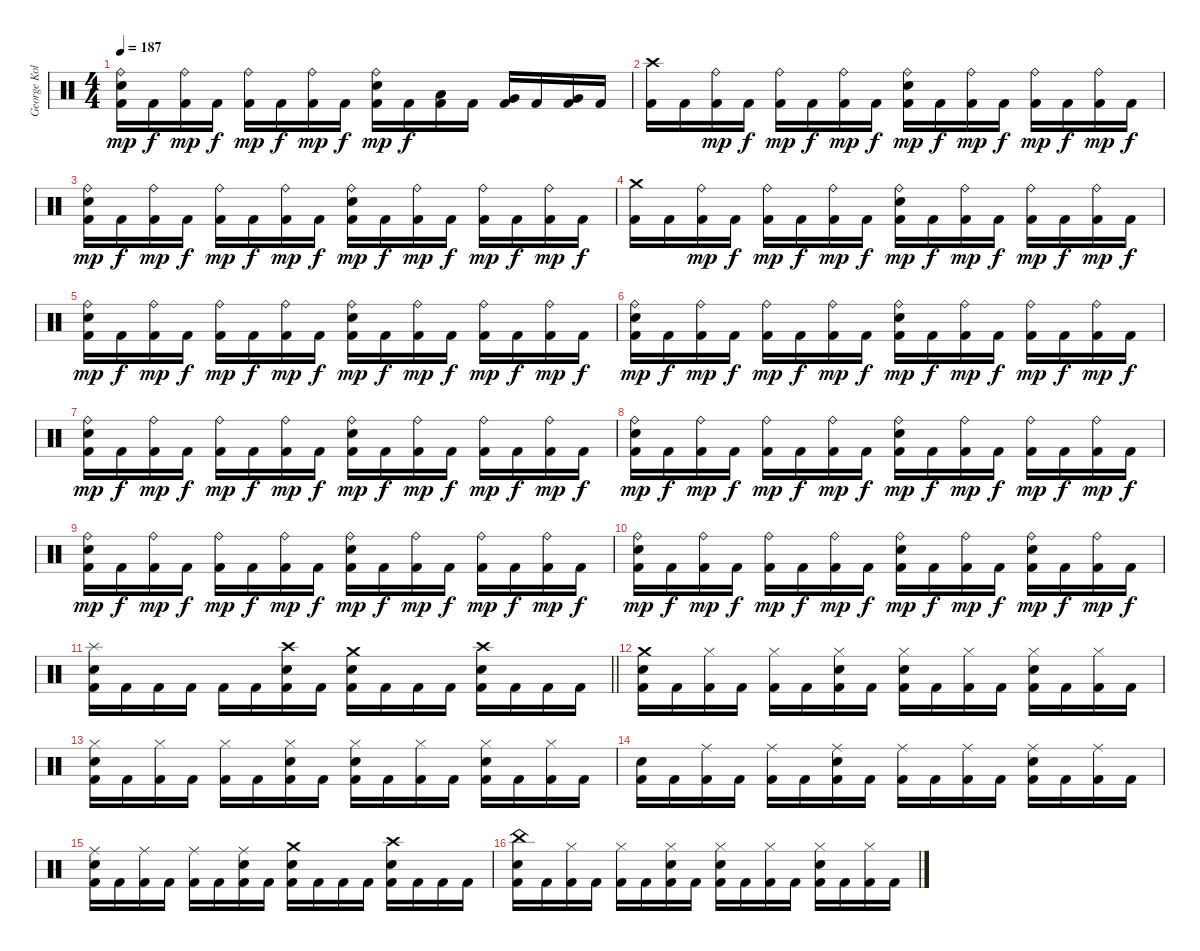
\track ("George Kollias" "George Kol") {instrument percussion}
\staff {score}
\articulation defaults
\ts (4 4)
\tempo 187
\clef neutral
\ks c
("Ride (bell)" "Electric Snare (hit)" "Kick (hit) 2").16{dy mp} "Kick (hit) 2".16{dy f} ("Ride (bell)" "Kick (hit) 2").16{dy mp} "Kick (hit) 2".16{dy f} ("Ride (bell)" "Kick (hit) 2").16{dy mp} "Kick (hit) 2".16{dy f} ("Ride (bell)" "Kick (hit) 2").16{dy mp} "Kick (hit) 2".16{dy f} ("Ride (bell)" "Electric Snare (hit)" "Kick (hit) 2").16{dy mp} "Kick (hit) 2".16{dy f} ("Low Tom (hit)" "Kick (hit) 2").16 "Kick (hit) 2".16 ("Very Low Tom (hit)" "Kick (hit) 2").16 "Kick (hit) 2".16 ("Very Low Tom (hit)" "Kick (hit) 2").16 "Kick (hit) 2".16 |
("Crash high (hit)" "Kick (hit) 2").16 "Kick (hit) 2".16 ("Ride (bell)" "Kick (hit) 2").16{dy mp} "Kick (hit) 2".16{dy f} ("Ride (bell)" "Kick (hit) 2").16{dy mp} "Kick (hit) 2".16{dy f} ("Ride (bell)" "Kick (hit) 2").16{dy mp} "Kick (hit) 2".16{dy f} ("Ride (bell)" "Electric Snare (hit)" "Kick (hit) 2").16{dy mp} "Kick (hit) 2".16{dy f} ("Ride (bell)" "Kick (hit) 2").16{dy mp} "Kick (hit) 2".16{dy f} ("Ride (bell)" "Kick (hit) 2").16{dy mp} "Kick (hit) 2".16{dy f} ("Ride (bell)" "Kick (hit) 2").16{dy mp} "Kick (hit) 2".16{dy f} |
("Ride (bell)" "Electric Snare (hit)" "Kick (hit) 2").16{dy mp} "Kick (hit) 2".16{dy f} ("Ride (bell)" "Kick (hit) 2").16{dy mp} "Kick (hit) 2".16{dy f} ("Ride (bell)" "Kick (hit) 2").16{dy mp} "Kick (hit) 2".16{dy f} ("Ride (bell)" "Kick (hit) 2").16{dy mp} "Kick (hit) 2".16{dy f} ("Ride (bell)" "Electric Snare (hit)" "Kick (hit) 2").16{dy mp} "Kick (hit) 2".16{dy f} ("Ride (bell)" "Kick (hit) 2").16{dy mp} "Kick (hit) 2".16{dy f} ("Ride (bell)" "Kick (hit) 2").16{dy mp} "Kick (hit) 2".16{dy f} ("Ride (bell)" "Kick (hit) 2").16{dy mp} "Kick (hit) 2".16{dy f} |
("Crash medium (hit)" "Kick (hit) 2").16 "Kick (hit) 2".16 ("Ride (bell)" "Kick (hit) 2").16{dy mp} "Kick (hit) 2".16{dy f} ("Ride (bell)" "Kick (hit) 2").16{dy mp} "Kick (hit) 2".16{dy f} ("Ride (bell)" "Kick (hit) 2").16{dy mp} "Kick (hit) 2".16{dy f} ("Ride (bell)" "Electric Snare (hit)" "Kick (hit) 2").16{dy mp} "Kick (hit) 2".16{dy f} ("Ride (bell)" "Kick (hit) 2").16{dy mp} "Kick (hit) 2".16{dy f} ("Ride (bell)" "Kick (hit) 2").16{dy mp} "Kick (hit) 2".16{dy f} ("Ride (bell)" "Kick (hit) 2").16{dy mp} "Kick (hit) 2".16{dy f} |
("Ride (bell)" "Electric Snare (hit)" "Kick (hit) 2").16{dy mp} "Kick (hit) 2".16{dy f} ("Ride (bell)" "Kick (hit) 2").16{dy mp} "Kick (hit) 2".16{dy f} ("Ride (bell)" "Kick (hit) 2").16{dy mp} "Kick (hit) 2".16{dy f} ("Ride (bell)" "Kick (hit) 2").16{dy mp} "Kick (hit) 2".16{dy f} ("Ride (bell)" "Electric Snare (hit)" "Kick (hit) 2").16{dy mp} "Kick (hit) 2".16{dy f} ("Ride (bell)" "Kick (hit) 2").16{dy mp} "Kick (hit) 2".16{dy f} ("Ride (bell)" "Kick (hit) 2").16{dy mp} "Kick (hit) 2".16{dy f} ("Ride (bell)" "Kick (hit) 2").16{dy mp} "Kick (hit) 2".16{dy f} |
("Ride (bell)" "Electric Snare (hit)" "Kick (hit) 2").16{dy mp} "Kick (hit) 2".16{dy f} ("Ride (bell)" "Kick (hit) 2").16{dy mp} "Kick (hit) 2".16{dy f} ("Ride (bell)" "Kick (hit) 2").16{dy mp} "Kick (hit) 2".16{dy f} ("Ride (bell)" "Kick (hit) 2").16{dy mp} "Kick (hit) 2".16{dy f} ("Ride (bell)" "Electric Snare (hit)" "Kick (hit) 2").16{dy mp} "Kick (hit) 2".16{dy f} ("Ride (bell)" "Kick (hit) 2").16{dy mp} "Kick (hit) 2".16{dy f} ("Ride (bell)" "Kick (hit) 2").16{dy mp} "Kick (hit) 2".16{dy f} ("Ride (bell)" "Kick (hit) 2").16{dy mp} "Kick (hit) 2".16{dy f} |
("Ride (bell)" "Electric Snare (hit)" "Kick (hit) 2").16{dy mp} "Kick (hit) 2".16{dy f} ("Ride (bell)" "Kick (hit) 2").16{dy mp} "Kick (hit) 2".16{dy f} ("Ride (bell)" "Kick (hit) 2").16{dy mp} "Kick (hit) 2".16{dy f} ("Ride (bell)" "Kick (hit) 2").16{dy mp} "Kick (hit) 2".16{dy f} ("Ride (bell)" "Electric Snare (hit)" "Kick (hit) 2").16{dy mp} "Kick (hit) 2".16{dy f} ("Ride (bell)" "Kick (hit) 2").16{dy mp} "Kick (hit) 2".16{dy f} ("Ride (bell)" "Kick (hit) 2").16{dy mp} "Kick (hit) 2".16{dy f} ("Ride (bell)" "Kick (hit) 2").16{dy mp} "Kick (hit) 2".16{dy f} |
("Ride (bell)" "Electric Snare (hit)" "Kick (hit) 2").16{dy mp} "Kick (hit) 2".16{dy f} ("Ride (bell)" "Kick (hit) 2").16{dy mp} "Kick (hit) 2".16{dy f} ("Ride (bell)" "Kick (hit) 2").16{dy mp} "Kick (hit) 2".16{dy f} ("Ride (bell)" "Kick (hit) 2").16{dy mp} "Kick (hit) 2".16{dy f} ("Ride (bell)" "Electric Snare (hit)" "Kick (hit) 2").16{dy mp} "Kick (hit) 2".16{dy f} ("Ride (bell)" "Kick (hit) 2").16{dy mp} "Kick (hit) 2".16{dy f} ("Ride (bell)" "Kick (hit) 2").16{dy mp} "Kick (hit) 2".16{dy f} ("Ride (bell)" "Kick (hit) 2").16{dy mp} "Kick (hit) 2".16{dy f} |
("Ride (bell)" "Electric Snare (hit)" "Kick (hit) 2").16{dy mp} "Kick (hit) 2".16{dy f} ("Ride (bell)" "Kick (hit) 2").16{dy mp} "Kick (hit) 2".16{dy f} ("Ride (bell)" "Kick (hit) 2").16{dy mp} "Kick (hit) 2".16{dy f} ("Ride (bell)" "Kick (hit) 2").16{dy mp} "Kick (hit) 2".16{dy f} ("Ride (bell)" "Electric Snare (hit)" "Kick (hit) 2").16{dy mp} "Kick (hit) 2".16{dy f} ("Ride (bell)" "Kick (hit) 2").16{dy mp} "Kick (hit) 2".16{dy f} ("Ride (bell)" "Kick (hit) 2").16{dy mp} "Kick (hit) 2".16{dy f} ("Ride (bell)" "Kick (hit) 2").16{dy mp} "Kick (hit) 2".16{dy f} |
("Ride (bell)" "Electric Snare (hit)" "Kick (hit) 2").16{dy mp} "Kick (hit) 2".16{dy f} ("Ride (bell)" "Kick (hit) 2").16{dy mp} "Kick (hit) 2".16{dy f} ("Ride (bell)" "Kick (hit) 2").16{dy mp} "Kick (hit) 2".16{dy f} ("Ride (bell)" "Kick (hit) 2").16{dy mp} "Kick (hit) 2".16{dy f} ("Ride (bell)" "Electric Snare (hit)" "Kick (hit) 2").16{dy mp} "Kick (hit) 2".16{dy f} ("Ride (bell)" "Kick (hit) 2").16{dy mp} "Kick (hit) 2".16{dy f} ("Ride (bell)" "Electric Snare (hit)" "Kick (hit) 2").16{dy mp} "Kick (hit) 2".16{dy f} ("Ride (bell)" "Kick (hit) 2").16{dy mp} "Kick (hit) 2".16{dy f} |
\barLineRight lightlight
("Splash (hit)" "Electric Snare (hit)" "Kick (hit) 2").16 "Kick (hit) 2".16 "Kick (hit) 2".16 "Kick (hit) 2".16 "Kick (hit) 2".16 "Kick (hit) 2".16 ("Crash high (hit)" "Electric Snare (hit)" "Kick (hit) 2").16 "Kick (hit) 2".16 ("Crash medium (hit)" "Electric Snare (hit)" "Kick (hit) 2").16 "Kick (hit) 2".16 "Kick (hit) 2".16 "Kick (hit) 2".16 ("Crash high (hit)" "Electric Snare (hit)" "Kick (hit) 2").16 "Kick (hit) 2".16 "Kick (hit) 2".16 "Kick (hit) 2".16 |
\section ("" "")
("Crash medium (hit)" "Electric Snare (hit)" "Kick (hit) 2").16 "Kick (hit) 2".16 ("Hi-Hat (closed)" "Kick (hit) 2").16 "Kick (hit) 2".16 ("Hi-Hat (closed)" "Kick (hit) 2").16 "Kick (hit) 2".16 ("Hi-Hat (closed)" "Electric Snare (hit)" "Kick (hit) 2").16 "Kick (hit) 2".16 ("Hi-Hat (closed)" "Electric Snare (hit)" "Kick (hit) 2").16 "Kick (hit) 2".16 ("Hi-Hat (closed)" "Kick (hit) 2").16 "Kick (hit) 2".16 ("Hi-Hat (closed)" "Electric Snare (hit)" "Kick (hit) 2").16 "Kick (hit) 2".16 ("Hi-Hat (closed)" "Kick (hit) 2").16 "Kick (hit) 2".16 |
("Hi-Hat (closed)" "Electric Snare (hit)" "Kick (hit) 2").16 "Kick (hit) 2".16 ("Hi-Hat (closed)" "Kick (hit) 2").16 "Kick (hit) 2".16 ("Hi-Hat (closed)" "Kick (hit) 2").16 "Kick (hit) 2".16 ("Hi-Hat (closed)" "Electric Snare (hit)" "Kick (hit) 2").16 "Kick (hit) 2".16 ("Hi-Hat (closed)" "Electric Snare (hit)" "Kick (hit) 2").16 "Kick (hit) 2".16 ("Hi-Hat (closed)" "Kick (hit) 2").16 "Kick (hit) 2".16 ("Hi-Hat (closed)" "Electric Snare (hit)" "Kick (hit) 2").16 "Kick (hit) 2".16 ("Hi-Hat (closed)" "Kick (hit) 2").16 "Kick (hit) 2".16 |
("Electric Snare (hit)" "Kick (hit) 2").16 "Kick (hit) 2".16 ("Ride (middle)" "Kick (hit) 2").16 "Kick (hit) 2".16 ("Ride (middle)" "Kick (hit) 2").16 "Kick (hit) 2".16 ("Ride (middle)" "Electric Snare (hit)" "Kick (hit) 2").16 "Kick (hit) 2".16 ("Ride (middle)" "Kick (hit) 2").16 "Kick (hit) 2".16 ("Ride (middle)" "Kick (hit) 2").16 "Kick (hit) 2".16 ("Ride (middle)" "Electric Snare (hit)" "Kick (hit) 2").16 "Kick (hit) 2".16 ("Ride (middle)" "Kick (hit) 2").16 "Kick (hit) 2".16 |
("Ride (middle)" "Electric Snare (hit)" "Kick (hit) 2").16 "Kick (hit) 2".16 ("Ride (middle)" "Kick (hit) 2").16 "Kick (hit) 2".16 ("Ride (middle)" "Kick (hit) 2").16 "Kick (hit) 2".16 ("Ride (middle)" "Electric Snare (hit)" "Kick (hit) 2").16 "Kick (hit) 2".16 ("Crash medium (hit)" "Electric Snare (hit)" "Kick (hit) 2").16 "Kick (hit) 2".16 "Kick (hit) 2".16 "Kick (hit) 2".16 ("Crash high (hit)" "Electric Snare (hit)" "Kick (hit) 2").16 "Kick (hit) 2".16 "Kick (hit) 2".16 "Kick (hit) 2".16 |
("China (hit)" "Electric Snare (hit)" "Kick (hit) 2").16 "Kick (hit) 2".16 ("Hi-Hat (closed)" "Kick (hit) 2").16 "Kick (hit) 2".16 ("Hi-Hat (closed)" "Kick (hit) 2").16 "Kick (hit) 2".16 ("Hi-Hat (closed)" "Electric Snare (hit)" "Kick (hit) 2").16 "Kick (hit) 2".16 ("Hi-Hat (closed)" "Electric Snare (hit)" "Kick (hit) 2").16 "Kick (hit) 2".16 ("Hi-Hat (closed)" "Kick (hit) 2").16 "Kick (hit) 2".16 ("Hi-Hat (closed)" "Electric Snare (hit)" "Kick (hit) 2").16 "Kick (hit) 2".16 ("Hi-Hat (closed)" "Kick (hit) 2").16 "Kick (hit) 2".16
